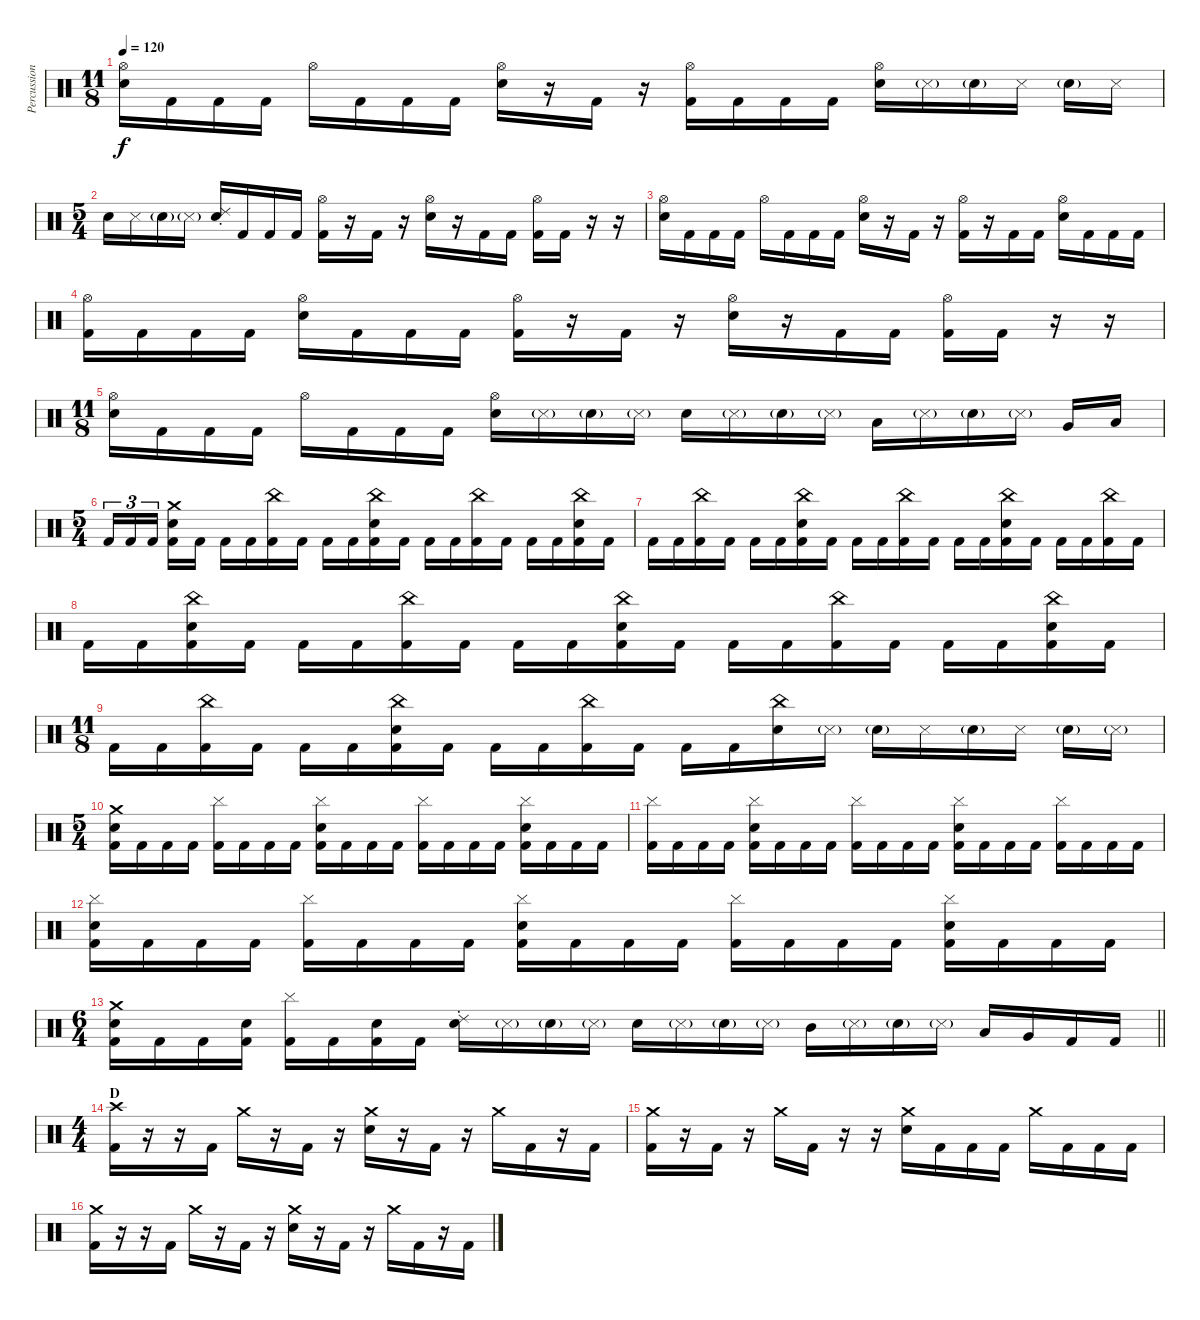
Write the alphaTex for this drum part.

\track ("Percussion" "Percussion") {instrument percussion}
\staff {score}
\articulation defaults
\ts (11 8)
\tempo 120
\clef neutral
\ks c
("Hi-Hat (open)" "Snare (hit) 2").16{dy f} "Kick (hit) 2".16 "Kick (hit) 2".16 "Kick (hit) 2".16 "Hi-Hat (open)".16 "Kick (hit) 2".16 "Kick (hit) 2".16 "Kick (hit) 2".16 ("Hi-Hat (open)" "Snare (hit) 2").16 r.16 "Kick (hit) 2".16 r.16 ("Hi-Hat (open)" "Kick (hit) 2").16 "Kick (hit) 2".16 "Kick (hit) 2".16 "Kick (hit) 2".16 ("Hi-Hat (open)" "Snare (hit) 2").16 "Metronome (hit)"{g}.16 "Snare (hit) 2"{g}.16 "Metronome (hit)".16 "Snare (hit) 2"{g}.16 "Metronome (hit)".16 |
\ts (5 4)
"Snare (hit) 2".16 "Metronome (hit)".16 "Snare (hit) 2"{g}.16 "Metronome (hit)"{g}.16 ("Ride (choke) 2" "Snare (hit) 2").16 "Kick (hit) 2".16 "Kick (hit) 2".16 "Kick (hit) 2".16 ("Hi-Hat (open)" "Kick (hit) 2").16 r.16 "Kick (hit) 2".16 r.16 ("Hi-Hat (open)" "Snare (hit) 2").16 r.16 "Kick (hit) 2".16 "Kick (hit) 2".16 ("Hi-Hat (open)" "Kick (hit) 2").16 "Kick (hit) 2".16 r.16 r.16 |
("Hi-Hat (open)" "Snare (hit) 2").16 "Kick (hit) 2".16 "Kick (hit) 2".16 "Kick (hit) 2".16 "Hi-Hat (open)".16 "Kick (hit) 2".16 "Kick (hit) 2".16 "Kick (hit) 2".16 ("Hi-Hat (open)" "Snare (hit) 2").16 r.16 "Kick (hit) 2".16 r.16 ("Hi-Hat (open)" "Kick (hit) 2").16 r.16 "Kick (hit) 2".16 "Kick (hit) 2".16 ("Hi-Hat (open)" "Snare (hit) 2").16 "Kick (hit) 2".16 "Kick (hit) 2".16 "Kick (hit) 2".16 |
("Hi-Hat (open)" "Kick (hit) 2").16 "Kick (hit) 2".16 "Kick (hit) 2".16 "Kick (hit) 2".16 ("Hi-Hat (open)" "Snare (hit) 2").16 "Kick (hit) 2".16 "Kick (hit) 2".16 "Kick (hit) 2".16 ("Hi-Hat (open)" "Kick (hit) 2").16 r.16 "Kick (hit) 2".16 r.16 ("Hi-Hat (open)" "Snare (hit) 2").16 r.16 "Kick (hit) 2".16 "Kick (hit) 2".16 ("Hi-Hat (open)" "Kick (hit) 2").16 "Kick (hit) 2".16 r.16 r.16 |
\ts (11 8)
("Hi-Hat (open)" "Snare (hit) 2").16 "Kick (hit) 2".16 "Kick (hit) 2".16 "Kick (hit) 2".16 "Hi-Hat (open)".16 "Kick (hit) 2".16 "Kick (hit) 2".16 "Kick (hit) 2".16 ("Hi-Hat (open)" "Snare (hit) 2").16 "Metronome (hit)"{g}.16 "Snare (hit) 2"{g}.16 "Metronome (hit)"{g}.16 "Snare (hit) 2".16 "Metronome (hit)"{g}.16 "Snare (hit) 2"{g}.16 "Metronome (hit)"{g}.16 "Low Tom (hit)".16 "Metronome (hit)"{g}.16 "Snare (hit) 2"{g}.16 "Metronome (hit)"{g}.16 "Very Low Tom (hit)".16 "Low Floor Tom (hit)".16 |
\ts (5 4)
"Kick (hit) 2".16{tu (3 2)} "Kick (hit) 2".16{tu (3 2)} "Kick (hit) 2".16{tu (3 2) beam splitsecondary} ("Crash medium (hit)" "Snare (hit) 2" "Kick (hit) 2").16 "Kick (hit) 2".16 "Kick (hit) 2".16 "Kick (hit) 2".16 ("China (hit)" "Kick (hit) 2").16 "Kick (hit) 2".16 "Kick (hit) 2".16 "Kick (hit) 2".16 ("China (hit)" "Snare (hit) 2" "Kick (hit) 2").16 "Kick (hit) 2".16 "Kick (hit) 2".16 "Kick (hit) 2".16 ("China (hit)" "Kick (hit) 2").16 "Kick (hit) 2".16 "Kick (hit) 2".16 "Kick (hit) 2".16 ("China (hit)" "Snare (hit) 2" "Kick (hit) 2").16 "Kick (hit) 2".16 |
"Kick (hit) 2".16 "Kick (hit) 2".16 ("China (hit)" "Kick (hit) 2").16 "Kick (hit) 2".16 "Kick (hit) 2".16 "Kick (hit) 2".16 ("China (hit)" "Snare (hit) 2" "Kick (hit) 2").16 "Kick (hit) 2".16 "Kick (hit) 2".16 "Kick (hit) 2".16 ("China (hit)" "Kick (hit) 2").16 "Kick (hit) 2".16 "Kick (hit) 2".16 "Kick (hit) 2".16 ("China (hit)" "Snare (hit) 2" "Kick (hit) 2").16 "Kick (hit) 2".16 "Kick (hit) 2".16 "Kick (hit) 2".16 ("China (hit)" "Kick (hit) 2").16 "Kick (hit) 2".16 |
"Kick (hit) 2".16 "Kick (hit) 2".16 ("China (hit)" "Snare (hit) 2" "Kick (hit) 2").16 "Kick (hit) 2".16 "Kick (hit) 2".16 "Kick (hit) 2".16 ("China (hit)" "Kick (hit) 2").16 "Kick (hit) 2".16 "Kick (hit) 2".16 "Kick (hit) 2".16 ("China (hit)" "Snare (hit) 2" "Kick (hit) 2").16 "Kick (hit) 2".16 "Kick (hit) 2".16 "Kick (hit) 2".16 ("China (hit)" "Kick (hit) 2").16 "Kick (hit) 2".16 "Kick (hit) 2".16 "Kick (hit) 2".16 ("China (hit)" "Snare (hit) 2" "Kick (hit) 2").16 "Kick (hit) 2".16 |
\ts (11 8)
"Kick (hit) 2".16 "Kick (hit) 2".16 ("China (hit)" "Kick (hit) 2").16 "Kick (hit) 2".16 "Kick (hit) 2".16 "Kick (hit) 2".16 ("China (hit)" "Snare (hit) 2" "Kick (hit) 2").16 "Kick (hit) 2".16 "Kick (hit) 2".16 "Kick (hit) 2".16 ("China (hit)" "Kick (hit) 2").16 "Kick (hit) 2".16 "Kick (hit) 2".16 "Kick (hit) 2".16 ("China (hit)" "Snare (hit) 2").16 "Metronome (hit)"{g}.16 "Snare (hit) 2"{g}.16 "Metronome (hit)".16 "Snare (hit) 2"{g}.16 "Metronome (hit)".16 "Snare (hit) 2"{g}.16 "Metronome (hit)"{g}.16 |
\ts (5 4)
("Crash medium (hit)" "Snare (hit) 2" "Kick (hit) 2").16 "Kick (hit) 2".16 "Kick (hit) 2".16 "Kick (hit) 2".16 ("Cymbal (hit)" "Kick (hit) 2").16 "Kick (hit) 2".16 "Kick (hit) 2".16 "Kick (hit) 2".16 ("Cymbal (hit)" "Snare (hit) 2" "Kick (hit) 2").16 "Kick (hit) 2".16 "Kick (hit) 2".16 "Kick (hit) 2".16 ("Cymbal (hit)" "Kick (hit) 2").16 "Kick (hit) 2".16 "Kick (hit) 2".16 "Kick (hit) 2".16 ("Cymbal (hit)" "Snare (hit) 2" "Kick (hit) 2").16 "Kick (hit) 2".16 "Kick (hit) 2".16 "Kick (hit) 2".16 |
("Cymbal (hit)" "Kick (hit) 2").16 "Kick (hit) 2".16 "Kick (hit) 2".16 "Kick (hit) 2".16 ("Cymbal (hit)" "Snare (hit) 2" "Kick (hit) 2").16 "Kick (hit) 2".16 "Kick (hit) 2".16 "Kick (hit) 2".16 ("Cymbal (hit)" "Kick (hit) 2").16 "Kick (hit) 2".16 "Kick (hit) 2".16 "Kick (hit) 2".16 ("Cymbal (hit)" "Snare (hit) 2" "Kick (hit) 2").16 "Kick (hit) 2".16 "Kick (hit) 2".16 "Kick (hit) 2".16 ("Cymbal (hit)" "Kick (hit) 2").16 "Kick (hit) 2".16 "Kick (hit) 2".16 "Kick (hit) 2".16 |
("Cymbal (hit)" "Snare (hit) 2" "Kick (hit) 2").16 "Kick (hit) 2".16 "Kick (hit) 2".16 "Kick (hit) 2".16 ("Cymbal (hit)" "Kick (hit) 2").16 "Kick (hit) 2".16 "Kick (hit) 2".16 "Kick (hit) 2".16 ("Cymbal (hit)" "Snare (hit) 2" "Kick (hit) 2").16 "Kick (hit) 2".16 "Kick (hit) 2".16 "Kick (hit) 2".16 ("Cymbal (hit)" "Kick (hit) 2").16 "Kick (hit) 2".16 "Kick (hit) 2".16 "Kick (hit) 2".16 ("Cymbal (hit)" "Snare (hit) 2" "Kick (hit) 2").16 "Kick (hit) 2".16 "Kick (hit) 2".16 "Kick (hit) 2".16 |
\ts (6 4)
\barLineRight lightlight
("Crash medium (hit)" "Snare (hit) 2" "Kick (hit) 2").16 "Kick (hit) 2".16 "Kick (hit) 2".16 ("Snare (hit) 2" "Kick (hit) 2").16 ("Cymbal (hit)" "Kick (hit) 2").16 "Kick (hit) 2".16 ("Snare (hit) 2" "Kick (hit) 2").16 "Kick (hit) 2".16 ("Ride (choke) 2" "Snare (hit) 2").16 "Metronome (hit)"{g}.16 "Snare (hit) 2"{g}.16 "Metronome (hit)"{g}.16 "Snare (hit) 2".16 "Metronome (hit)"{g}.16 "Snare (hit) 2"{g}.16 "Metronome (hit)"{g}.16 "Mid Tom (hit)".16 "Metronome (hit)"{g}.16 "Snare (hit) 2"{g}.16 "Metronome (hit)"{g}.16 "Low Tom (hit)".16 "Very Low Tom (hit)".16 "Kick (hit) 2".16 "Kick (hit) 2".16 |
\ts (4 4)
\section ("" "D")
("Crash high (hit)" "Kick (hit) 2").16 r.16 r.16 "Kick (hit) 2".16 "Crash medium (hit)".16 r.16 "Kick (hit) 2".16 r.16 ("Crash medium (hit)" "Snare (hit) 2").16 r.16 "Kick (hit) 2".16 r.16 "Crash medium (hit)".16 "Kick (hit) 2".16 r.16 "Kick (hit) 2".16 |
("Crash medium (hit)" "Kick (hit) 2").16 r.16 "Kick (hit) 2".16 r.16 "Crash medium (hit)".16 "Kick (hit) 2".16 r.16 r.16 ("Crash medium (hit)" "Snare (hit) 2").16 "Kick (hit) 2".16 "Kick (hit) 2".16 "Kick (hit) 2".16 "Crash medium (hit)".16 "Kick (hit) 2".16 "Kick (hit) 2".16 "Kick (hit) 2".16 |
("Crash medium (hit)" "Kick (hit) 2").16 r.16 r.16 "Kick (hit) 2".16 "Crash medium (hit)".16 r.16 "Kick (hit) 2".16 r.16 ("Crash medium (hit)" "Snare (hit) 2").16 r.16 "Kick (hit) 2".16 r.16 "Crash medium (hit)".16 "Kick (hit) 2".16 r.16 "Kick (hit) 2".16
